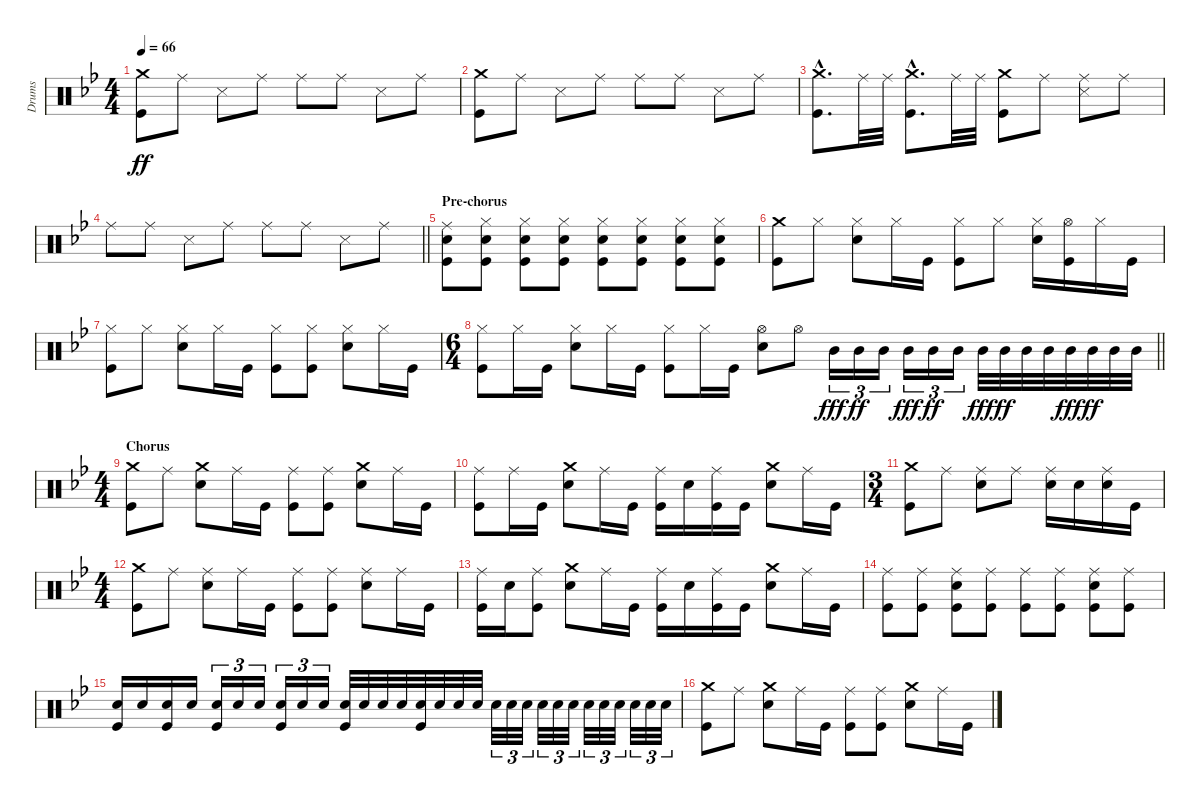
\track ("Drums" "Drums") {instrument percussion}
\staff {score}
\articulation defaults
\ts (4 4)
\tempo 66
\clef neutral
\ks bb
("Kick (hit)" "Crash medium (hit)").8{dy ff} "Ride (middle)".8 "Snare (side stick) 3".8 "Ride (middle)".8 "Ride (middle)".8 "Ride (middle)".8 "Snare (side stick) 3".8 "Ride (middle)".8 |
("Kick (hit)" "Crash medium (hit)").8 "Ride (middle)".8 "Snare (side stick) 3".8 "Ride (middle)".8 "Ride (middle)".8 "Ride (middle)".8 "Snare (side stick) 3".8 "Ride (middle)".8 |
("Kick (hit)"{hac} "Crash medium (hit)"{hac}).8{d} "Ride (middle)".32 "Ride (middle)".32 ("Kick (hit)"{hac} "Crash medium (hit)"{hac}).8{d} "Ride (middle)".32 "Ride (middle)".32 ("Kick (hit)" "Crash medium (hit)").8 "Ride (middle)".8 ("Snare (side stick) 3" "Ride (middle)").8 "Ride (middle)".8 |
\barLineRight lightlight "Ride (middle)".8 "Ride (middle)".8 "Snare (side stick) 3".8 "Ride (middle)".8 "Ride (middle)".8 "Ride (middle)".8 "Snare (side stick) 3".8 "Ride (middle)".8
|
\section ("" "Pre-chorus")
("Kick (hit)" "Snare (hit) 2" "Ride (middle)").8 ("Kick (hit)" "Snare (hit) 2" "Hi-Hat (closed)").8 ("Kick (hit)" "Snare (hit) 2" "Hi-Hat (closed)").8 ("Kick (hit)" "Snare (hit) 2" "Hi-Hat (closed)").8 ("Kick (hit)" "Snare (hit) 2" "Hi-Hat (closed)").8 ("Kick (hit)" "Snare (hit) 2" "Hi-Hat (closed)").8 ("Kick (hit)" "Snare (hit) 2" "Hi-Hat (closed)").8 ("Kick (hit)" "Snare (hit) 2" "Hi-Hat (closed)").8 |
("Kick (hit)" "Crash medium (hit)").8 "Hi-Hat (closed)".8 ("Snare (hit) 2" "Hi-Hat (closed)").8 "Hi-Hat (closed)".16 "Kick (hit)".16 ("Kick (hit)" "Hi-Hat (closed)").8 "Hi-Hat (closed)".8 ("Snare (hit) 2" "Hi-Hat (closed)").16 ("Kick (hit)" "Hi-Hat (open)").16 "Hi-Hat (closed)".16 "Kick (hit)".16 |
("Kick (hit)" "Hi-Hat (closed)").8 "Hi-Hat (closed)".8 ("Snare (hit) 2" "Hi-Hat (closed)").8 "Hi-Hat (closed)".16 "Kick (hit)".16 ("Kick (hit)" "Hi-Hat (closed)").8 ("Kick (hit)" "Hi-Hat (closed)").8 ("Snare (hit) 2" "Hi-Hat (closed)").8 "Hi-Hat (closed)".16 "Kick (hit)".16 |
\ts (6 4)
\barLineRight lightlight
("Kick (hit)" "Hi-Hat (closed)").8 "Hi-Hat (closed)".16 "Kick (hit)".16 ("Snare (hit) 2" "Hi-Hat (closed)").8 "Hi-Hat (closed)".16 "Kick (hit)".16 ("Kick (hit)" "Hi-Hat (closed)").8 "Hi-Hat (closed)".16 "Kick (hit)".16 ("Snare (hit) 2" "Hi-Hat (open)").8 "Hi-Hat (open)".8 "Mid Tom (hit)".16{tu (3 2) dy fff} "Mid Tom (hit)".16{tu (3 2) dy ff} "Mid Tom (hit)".16{tu (3 2)} "Mid Tom (hit)".16{tu (3 2) dy fff} "Mid Tom (hit)".16{tu (3 2) dy ff} "Mid Tom (hit)".16{tu (3 2)} "Mid Tom (hit)".32{dy fff} "Mid Tom (hit)".32{dy ff} "Mid Tom (hit)".32 "Mid Tom (hit)".32 "Mid Tom (hit)".32{dy fff} "Mid Tom (hit)".32{dy ff} "Mid Tom (hit)".32 "Mid Tom (hit)".32 |
\ts (4 4)
\section ("" "Chorus")
("Kick (hit)" "Crash medium (hit)").8 "Ride (middle)".8 ("Snare (hit) 2" "Crash medium (hit)").8 "Ride (middle)".16 "Kick (hit)".16 ("Kick (hit)" "Ride (middle)").8 ("Kick (hit)" "Ride (middle)").8 ("Snare (hit) 2" "Crash medium (hit)").8 "Ride (middle)".16 "Kick (hit)".16 |
("Kick (hit)" "Ride (middle)").8 "Ride (middle)".16 "Kick (hit)".16 ("Snare (hit) 2" "Crash medium (hit)").8 "Ride (middle)".16 "Kick (hit)".16 ("Kick (hit)" "Ride (middle)").16 "Snare (hit) 2".16 ("Kick (hit)" "Ride (middle)").16 "Kick (hit)".16 ("Snare (hit) 2" "Crash medium (hit)").8 "Ride (middle)".16 "Kick (hit)".16 |
\ts (3 4)
("Kick (hit)" "Crash medium (hit)").8 "Ride (middle)".8 ("Snare (hit) 2" "Ride (middle)").8 "Ride (middle)".8 ("Snare (hit) 2" "Ride (middle)").16 "Snare (hit) 2".16 ("Snare (hit) 2" "Ride (middle)").16 "Kick (hit)".16 |
\ts (4 4)
("Kick (hit)" "Crash medium (hit)").8 "Ride (middle)".8 ("Snare (hit) 2" "Ride (middle)").8 "Ride (middle)".16 "Kick (hit)".16 ("Kick (hit)" "Ride (middle)").8 ("Kick (hit)" "Ride (middle)").8 ("Snare (hit) 2" "Ride (middle)").8 "Ride (middle)".16 "Kick (hit)".16 |
("Kick (hit)" "Ride (middle)").16 "Snare (hit) 2".16 ("Kick (hit)" "Ride (middle)").8 ("Snare (hit) 2" "Crash medium (hit)").8 "Ride (middle)".16 "Kick (hit)".16 ("Kick (hit)" "Ride (middle)").16 "Snare (hit) 2".16 ("Kick (hit)" "Ride (middle)").16 "Kick (hit)".16 ("Snare (hit) 2" "Crash medium (hit)").8 "Ride (middle)".16 "Kick (hit)".16 |
("Kick (hit)" "Ride (middle)").8 ("Kick (hit)" "Ride (middle)").8 ("Kick (hit)" "Snare (hit) 2" "Ride (middle)").8 ("Kick (hit)" "Ride (middle)").8 ("Kick (hit)" "Ride (middle)").8 ("Kick (hit)" "Ride (middle)").8 ("Kick (hit)" "Snare (hit) 2" "Ride (middle)").8 ("Kick (hit)" "Ride (middle)").8 |
("Kick (hit)" "Snare (hit) 2").16 "Snare (hit) 2".16 ("Kick (hit)" "Snare (hit) 2").16 "Snare (hit) 2".16 ("Kick (hit)" "Snare (hit) 2").16{tu (3 2)} "Snare (hit) 2".16{tu (3 2)} "Snare (hit) 2".16{tu (3 2)} ("Kick (hit)" "Snare (hit) 2").16{tu (3 2)} "Snare (hit) 2".16{tu (3 2)} "Snare (hit) 2".16{tu (3 2)} ("Kick (hit)" "Snare (hit) 2").32 "Snare (hit) 2".32 "Snare (hit) 2".32 "Snare (hit) 2".32 ("Kick (hit)" "Snare (hit) 2").32 "Snare (hit) 2".32 "Snare (hit) 2".32 "Snare (hit) 2".32 "Snare (hit) 2".32{tu (3 2)} "Snare (hit) 2".32{tu (3 2)} "Snare (hit) 2".32{tu (3 2)} "Snare (hit) 2".32{tu (3 2)} "Snare (hit) 2".32{tu (3 2)} "Snare (hit) 2".32{tu (3 2)} "Snare (hit) 2".32{tu (3 2)} "Snare (hit) 2".32{tu (3 2)} "Snare (hit) 2".32{tu (3 2)} "Snare (hit) 2".32{tu (3 2)} "Snare (hit) 2".32{tu (3 2)} "Snare (hit) 2".32{tu (3 2)} |
("Kick (hit)" "Crash medium (hit)").8 "Ride (middle)".8 ("Snare (hit) 2" "Crash medium (hit)").8 "Ride (middle)".16 "Kick (hit)".16 ("Kick (hit)" "Ride (middle)").8 ("Kick (hit)" "Ride (middle)").8 ("Snare (hit) 2" "Crash medium (hit)").8 "Ride (middle)".16 "Kick (hit)".16
